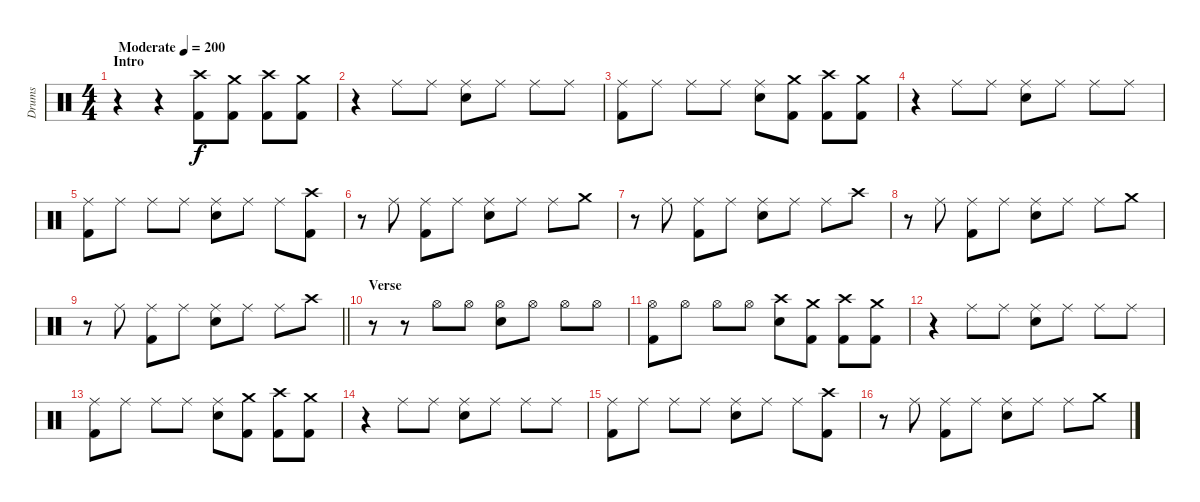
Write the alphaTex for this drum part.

\track ("Drums" "Drums") {instrument percussion}
\staff {score}
\articulation defaults
\ts (4 4)
\section ("" "Intro")
\tempo (200 "Moderate")
\clef neutral
\ks c
r.4{dy f} r.4 ("Crash high (hit)" "Kick (hit) 2").8 ("Crash medium (hit)" "Kick (hit) 2").8 ("Crash high (hit)" "Kick (hit) 2").8 ("Crash medium (hit)" "Kick (hit) 2").8 |
r.4 "Ride (middle)".8 "Ride (middle)".8 ("Ride (middle)" "Electric Snare (hit)").8 "Ride (middle)".8 "Ride (middle)".8 "Ride (middle)".8 |
("Ride (middle)" "Kick (hit) 2").8 "Ride (middle)".8 "Ride (middle)".8 "Ride (middle)".8 ("Ride (middle)" "Electric Snare (hit)").8 ("Crash medium (hit)" "Kick (hit) 2").8 ("Crash high (hit)" "Kick (hit) 2").8 ("Crash medium (hit)" "Kick (hit) 2").8 |
r.4 "Ride (middle)".8 "Ride (middle)".8 ("Ride (middle)" "Electric Snare (hit)").8 "Ride (middle)".8 "Ride (middle)".8 "Ride (middle)".8 |
("Ride (middle)" "Kick (hit) 2").8 "Ride (middle)".8 "Ride (middle)".8 "Ride (middle)".8 ("Ride (middle)" "Electric Snare (hit)").8 "Ride (middle)".8 "Ride (middle)".8 ("Crash high (hit)" "Kick (hit) 2").8 |
r.8 "Ride (middle)".8 ("Ride (middle)" "Kick (hit) 2").8 "Ride (middle)".8 ("Ride (middle)" "Electric Snare (hit)").8 "Ride (middle)".8 "Ride (middle)".8 "Crash medium (hit)".8 |
r.8 "Ride (middle)".8 ("Ride (middle)" "Kick (hit) 2").8 "Ride (middle)".8 ("Ride (middle)" "Electric Snare (hit)").8 "Ride (middle)".8 "Ride (middle)".8 "Crash high (hit)".8 |
r.8 "Ride (middle)".8 ("Ride (middle)" "Kick (hit) 2").8 "Ride (middle)".8 ("Ride (middle)" "Electric Snare (hit)").8 "Ride (middle)".8 "Ride (middle)".8 "Crash medium (hit)".8 |
\barLineRight lightlight
r.8 "Ride (middle)".8 ("Ride (middle)" "Kick (hit) 2").8 "Ride (middle)".8 ("Ride (middle)" "Electric Snare (hit)").8 "Ride (middle)".8 "Ride (middle)".8 "Crash high (hit)".8 |
\section ("" "Verse")
r.8 r.8 "Hi-Hat (open)".8 "Hi-Hat (open)".8 ("Hi-Hat (open)" "Electric Snare (hit)").8 "Hi-Hat (open)".8 "Hi-Hat (open)".8 "Hi-Hat (open)".8 |
("Hi-Hat (open)" "Kick (hit) 2").8 "Hi-Hat (open)".8 "Hi-Hat (open)".8 "Hi-Hat (open)".8 ("Crash high (hit)" "Electric Snare (hit)").8 ("Crash medium (hit)" "Kick (hit) 2").8 ("Crash high (hit)" "Kick (hit) 2").8 ("Crash medium (hit)" "Kick (hit) 2").8 |
r.4 "Ride (middle)".8 "Ride (middle)".8 ("Ride (middle)" "Electric Snare (hit)").8 "Ride (middle)".8 "Ride (middle)".8 "Ride (middle)".8 |
("Ride (middle)" "Kick (hit) 2").8 "Ride (middle)".8 "Ride (middle)".8 "Ride (middle)".8 ("Ride (middle)" "Electric Snare (hit)").8 ("Crash medium (hit)" "Kick (hit) 2").8 ("Crash high (hit)" "Kick (hit) 2").8 ("Crash medium (hit)" "Kick (hit) 2").8 |
r.4 "Ride (middle)".8 "Ride (middle)".8 ("Ride (middle)" "Electric Snare (hit)").8 "Ride (middle)".8 "Ride (middle)".8 "Ride (middle)".8 |
("Ride (middle)" "Kick (hit) 2").8 "Ride (middle)".8 "Ride (middle)".8 "Ride (middle)".8 ("Ride (middle)" "Electric Snare (hit)").8 "Ride (middle)".8 "Ride (middle)".8 ("Crash high (hit)" "Kick (hit) 2").8 |
r.8 "Ride (middle)".8 ("Ride (middle)" "Kick (hit) 2").8 "Ride (middle)".8 ("Ride (middle)" "Electric Snare (hit)").8 "Ride (middle)".8 "Ride (middle)".8 "Crash medium (hit)".8
